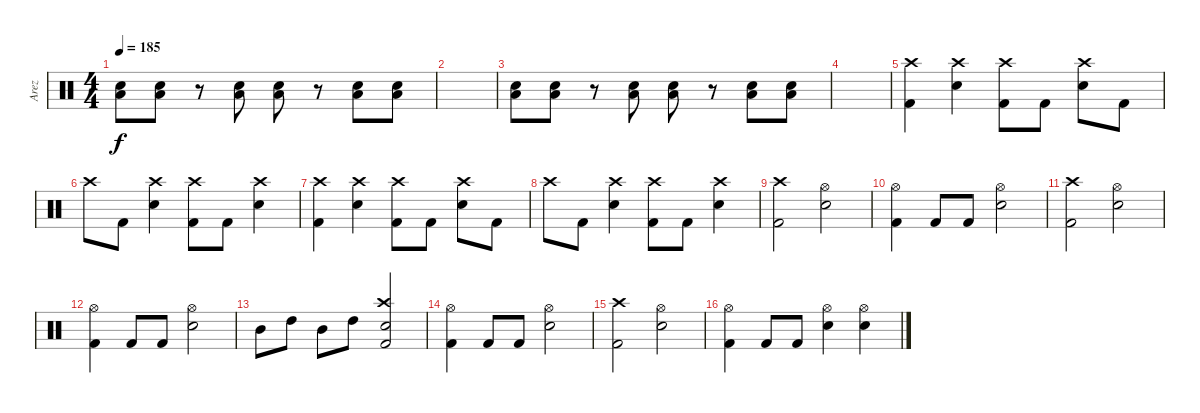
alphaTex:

\track ("Arez" "Arez") {instrument percussion}
\staff {score}
\articulation defaults
\ts (4 4)
\tempo 185
\clef neutral
\ks c
("Electric Snare (hit)" "Low Floor Tom (hit)").8{dy f} ("Electric Snare (hit)" "Low Floor Tom (hit)").8 r.8 ("Electric Snare (hit)" "Low Floor Tom (hit)").8 ("Electric Snare (hit)" "Low Floor Tom (hit)").8 r.8 ("Electric Snare (hit)" "Low Floor Tom (hit)").8 ("Electric Snare (hit)" "Low Floor Tom (hit)").8 |
|
("Electric Snare (hit)" "Low Floor Tom (hit)").8 ("Electric Snare (hit)" "Low Floor Tom (hit)").8 r.8 ("Electric Snare (hit)" "Low Floor Tom (hit)").8 ("Electric Snare (hit)" "Low Floor Tom (hit)").8 r.8 ("Electric Snare (hit)" "Low Floor Tom (hit)").8 ("Electric Snare (hit)" "Low Floor Tom (hit)").8 |
|
("Crash high (hit)" "Kick (hit) 2").4 ("Crash high (hit)" "Electric Snare (hit)").4 ("Crash high (hit)" "Kick (hit) 2").8 "Kick (hit) 2".8 ("Crash high (hit)" "Electric Snare (hit)").8 "Kick (hit) 2".8 |
"Crash high (hit)".8 "Kick (hit) 2".8 ("Electric Snare (hit)" "Crash high (hit)").4 ("Kick (hit) 2" "Crash high (hit)").8 "Kick (hit) 2".8 ("Electric Snare (hit)" "Crash high (hit)").4 |
("Crash high (hit)" "Kick (hit) 2").4 ("Crash high (hit)" "Electric Snare (hit)").4 ("Crash high (hit)" "Kick (hit) 2").8 "Kick (hit) 2".8 ("Crash high (hit)" "Electric Snare (hit)").8 "Kick (hit) 2".8 |
"Crash high (hit)".8 "Kick (hit) 2".8 ("Electric Snare (hit)" "Crash high (hit)").4 ("Kick (hit) 2" "Crash high (hit)").8 "Kick (hit) 2".8 ("Electric Snare (hit)" "Crash high (hit)").4 |
("Crash high (hit)" "Kick (hit) 2").2 ("Electric Snare (hit)" "Hi-Hat (open)").2 |
("Kick (hit) 2" "Hi-Hat (open)").4 "Kick (hit) 2".8 "Kick (hit) 2".8 ("Electric Snare (hit)" "Hi-Hat (open)").2 |
("Crash high (hit)" "Kick (hit) 2").2 ("Electric Snare (hit)" "Hi-Hat (open)").2 |
("Kick (hit) 2" "Hi-Hat (open)").4 "Kick (hit) 2".8 "Kick (hit) 2".8 ("Electric Snare (hit)" "Hi-Hat (open)").2 |
"Mid Tom (hit)".8 "High Tom (hit)".8 "Mid Tom (hit)".8 "High Tom (hit)".8 ("Electric Snare (hit)" "Crash high (hit)" "Kick (hit) 2").2 |
("Kick (hit) 2" "Hi-Hat (open)").4 "Kick (hit) 2".8 "Kick (hit) 2".8 ("Electric Snare (hit)" "Hi-Hat (open)").2 |
("Crash high (hit)" "Kick (hit) 2").2 ("Electric Snare (hit)" "Hi-Hat (open)").2 |
("Kick (hit) 2" "Hi-Hat (open)").4 "Kick (hit) 2".8 "Kick (hit) 2".8 ("Electric Snare (hit)" "Hi-Hat (open)").4 ("Hi-Hat (open)" "Electric Snare (hit)").4
